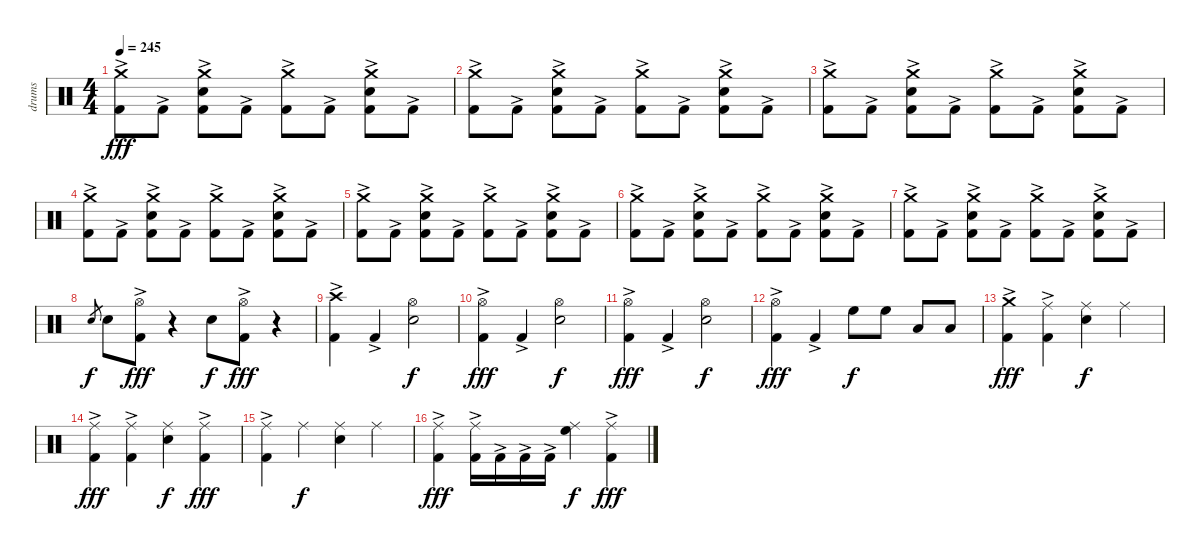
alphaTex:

\track ("drums" "drums") {instrument percussion}
\staff {score}
\articulation defaults
\ts (4 4)
\tempo 245
\clef neutral
\ks c
("Crash medium (hit)" "Kick (hit) 2"{ac}).8{dy fff} "Kick (hit) 2"{ac}.8 ("Crash medium (hit)" "Electric Snare (hit)" "Kick (hit) 2"{ac}).8 "Kick (hit) 2"{ac}.8 ("Crash medium (hit)" "Kick (hit) 2"{ac}).8 "Kick (hit) 2"{ac}.8 ("Crash medium (hit)" "Electric Snare (hit)" "Kick (hit) 2"{ac}).8 "Kick (hit) 2"{ac}.8 |
("Crash medium (hit)" "Kick (hit) 2"{ac}).8 "Kick (hit) 2"{ac}.8 ("Crash medium (hit)" "Electric Snare (hit)" "Kick (hit) 2"{ac}).8 "Kick (hit) 2"{ac}.8 ("Crash medium (hit)" "Kick (hit) 2"{ac}).8 "Kick (hit) 2"{ac}.8 ("Crash medium (hit)" "Electric Snare (hit)" "Kick (hit) 2"{ac}).8 "Kick (hit) 2"{ac}.8 |
("Crash medium (hit)" "Kick (hit) 2"{ac}).8 "Kick (hit) 2"{ac}.8 ("Crash medium (hit)" "Electric Snare (hit)" "Kick (hit) 2"{ac}).8 "Kick (hit) 2"{ac}.8 ("Crash medium (hit)" "Kick (hit) 2"{ac}).8 "Kick (hit) 2"{ac}.8 ("Crash medium (hit)" "Electric Snare (hit)" "Kick (hit) 2"{ac}).8 "Kick (hit) 2"{ac}.8 |
("Crash medium (hit)" "Kick (hit) 2"{ac}).8 "Kick (hit) 2"{ac}.8 ("Crash medium (hit)" "Electric Snare (hit)" "Kick (hit) 2"{ac}).8 "Kick (hit) 2"{ac}.8 ("Crash medium (hit)" "Kick (hit) 2"{ac}).8 "Kick (hit) 2"{ac}.8 ("Crash medium (hit)" "Electric Snare (hit)" "Kick (hit) 2"{ac}).8 "Kick (hit) 2"{ac}.8 |
("Crash medium (hit)" "Kick (hit) 2"{ac}).8 "Kick (hit) 2"{ac}.8 ("Crash medium (hit)" "Electric Snare (hit)" "Kick (hit) 2"{ac}).8 "Kick (hit) 2"{ac}.8 ("Crash medium (hit)" "Kick (hit) 2"{ac}).8 "Kick (hit) 2"{ac}.8 ("Crash medium (hit)" "Electric Snare (hit)" "Kick (hit) 2"{ac}).8 "Kick (hit) 2"{ac}.8 |
("Crash medium (hit)" "Kick (hit) 2"{ac}).8 "Kick (hit) 2"{ac}.8 ("Crash medium (hit)" "Electric Snare (hit)" "Kick (hit) 2"{ac}).8 "Kick (hit) 2"{ac}.8 ("Crash medium (hit)" "Kick (hit) 2"{ac}).8 "Kick (hit) 2"{ac}.8 ("Crash medium (hit)" "Electric Snare (hit)" "Kick (hit) 2"{ac}).8 "Kick (hit) 2"{ac}.8 |
("Crash medium (hit)" "Kick (hit) 2"{ac}).8 "Kick (hit) 2"{ac}.8 ("Crash medium (hit)" "Electric Snare (hit)" "Kick (hit) 2"{ac}).8 "Kick (hit) 2"{ac}.8 ("Crash medium (hit)" "Kick (hit) 2"{ac}).8 "Kick (hit) 2"{ac}.8 ("Crash medium (hit)" "Electric Snare (hit)" "Kick (hit) 2"{ac}).8 "Kick (hit) 2"{ac}.8 |
"Electric Snare (hit)".8{gr dy f} "Electric Snare (hit)".8 ("Hi-Hat (open)" "Kick (hit) 2"{ac}).8{dy fff} r.4 "Electric Snare (hit)".8{dy f} ("Hi-Hat (open)" "Kick (hit) 2"{ac}).8{dy fff} r.4 |
("Crash high (hit)" "Kick (hit) 2"{ac}).4 "Kick (hit) 2"{ac}.4 ("Hi-Hat (open)" "Electric Snare (hit)").2{dy f} |
("Hi-Hat (open)" "Kick (hit) 2"{ac}).4{dy fff} "Kick (hit) 2"{ac}.4 ("Hi-Hat (open)" "Electric Snare (hit)").2{dy f} |
("Hi-Hat (open)" "Kick (hit) 2"{ac}).4{dy fff} "Kick (hit) 2"{ac}.4 ("Hi-Hat (open)" "Electric Snare (hit)").2{dy f} |
("Hi-Hat (open)" "Kick (hit) 2"{ac}).4{dy fff} "Kick (hit) 2"{ac}.4 "High Floor Tom (hit)".8{dy f} "High Floor Tom (hit)".8 "Low Tom (hit)".8 "Low Tom (hit)".8 |
("Crash medium (hit)" "Kick (hit) 2"{ac}).4{dy fff} ("Ride (middle)" "Kick (hit) 2"{ac}).4 ("Ride (middle)" "Electric Snare (hit)").4{dy f} "Ride (middle)".4 |
("Ride (middle)" "Kick (hit) 2"{ac}).4{dy fff} ("Ride (middle)" "Kick (hit) 2"{ac}).4 ("Ride (middle)" "Electric Snare (hit)").4{dy f} ("Ride (middle)" "Kick (hit) 2"{ac}).4{dy fff} |
("Ride (middle)" "Kick (hit) 2"{ac}).4 "Ride (middle)".4{dy f} ("Ride (middle)" "Electric Snare (hit)").4 "Ride (middle)".4 |
("Ride (middle)" "Kick (hit) 2"{ac}).4{dy fff} ("Ride (middle)" "Kick (hit) 2"{ac}).16 "Kick (hit) 2"{ac}.16 "Kick (hit) 2"{ac}.16 "Kick (hit) 2"{ac}.16 ("Ride (middle)" "High Floor Tom (hit)").4{dy f} ("Ride (middle)" "Kick (hit) 2"{ac}).4{dy fff}
